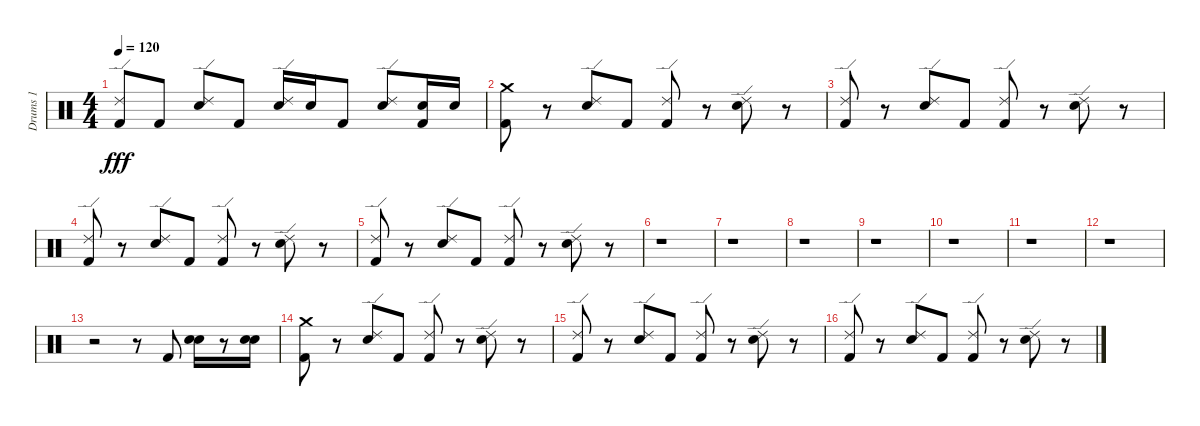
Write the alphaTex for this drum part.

\track ("Drums 1" "Drums 1") {instrument percussion}
\staff {score}
\articulation defaults
\ts (4 4)
\tempo 120
\clef neutral
\ks c
("Kick (hit) 2" "Ride (edge) 2").8{dy fff} "Kick (hit) 2".8 ("Electric Snare (hit)" "Ride (edge) 2").8 "Kick (hit) 2".8 ("Electric Snare (hit)" "Ride (edge) 2").16 "Electric Snare (hit)".16 "Kick (hit) 2".8 ("Electric Snare (hit)" "Ride (edge) 2").8 ("Kick (hit) 2" "Electric Snare (hit)").16 "Electric Snare (hit)".16 |
("Crash medium (hit)" "Kick (hit) 2").8 r.8 ("Ride (edge) 2" "Electric Snare (hit)").8 "Kick (hit) 2".8 ("Ride (edge) 2" "Kick (hit) 2").8 r.8 ("Ride (edge) 2" "Electric Snare (hit)").8 r.8 |
("Kick (hit) 2" "Ride (edge) 2").8 r.8 ("Electric Snare (hit)" "Ride (edge) 2").8 "Kick (hit) 2".8 ("Kick (hit) 2" "Ride (edge) 2").8 r.8 ("Electric Snare (hit)" "Ride (edge) 2").8 r.8 |
("Kick (hit) 2" "Ride (edge) 2").8 r.8 ("Electric Snare (hit)" "Ride (edge) 2").8 "Kick (hit) 2".8 ("Kick (hit) 2" "Ride (edge) 2").8 r.8 ("Electric Snare (hit)" "Ride (edge) 2").8 r.8 |
("Kick (hit) 2" "Ride (edge) 2").8 r.8 ("Electric Snare (hit)" "Ride (edge) 2").8 "Kick (hit) 2".8 ("Kick (hit) 2" "Ride (edge) 2").8 r.8 ("Electric Snare (hit)" "Ride (edge) 2").8 r.8 |
r.1 |
r.1 |
r.1 |
r.1 |
r.1 |
r.1 |
r.1 |
r.2 r.8 "Kick (hit) 2".8 ("Snare (hit) 2" "Electric Snare (hit)").16 r.8 ("Electric Snare (hit)" "Snare (hit) 2").16 |
("Kick (hit) 2" "Crash medium (hit)").8 r.8 ("Electric Snare (hit)" "Ride (edge) 2").8 "Kick (hit) 2".8 ("Kick (hit) 2" "Ride (edge) 2").8 r.8 ("Electric Snare (hit)" "Ride (edge) 2").8 r.8 |
("Kick (hit) 2" "Ride (edge) 2").8 r.8 ("Electric Snare (hit)" "Ride (edge) 2").8 "Kick (hit) 2".8 ("Kick (hit) 2" "Ride (edge) 2").8 r.8 ("Electric Snare (hit)" "Ride (edge) 2").8 r.8 |
("Kick (hit) 2" "Ride (edge) 2").8 r.8 ("Electric Snare (hit)" "Ride (edge) 2").8 "Kick (hit) 2".8 ("Kick (hit) 2" "Ride (edge) 2").8 r.8 ("Electric Snare (hit)" "Ride (edge) 2").8 r.8
